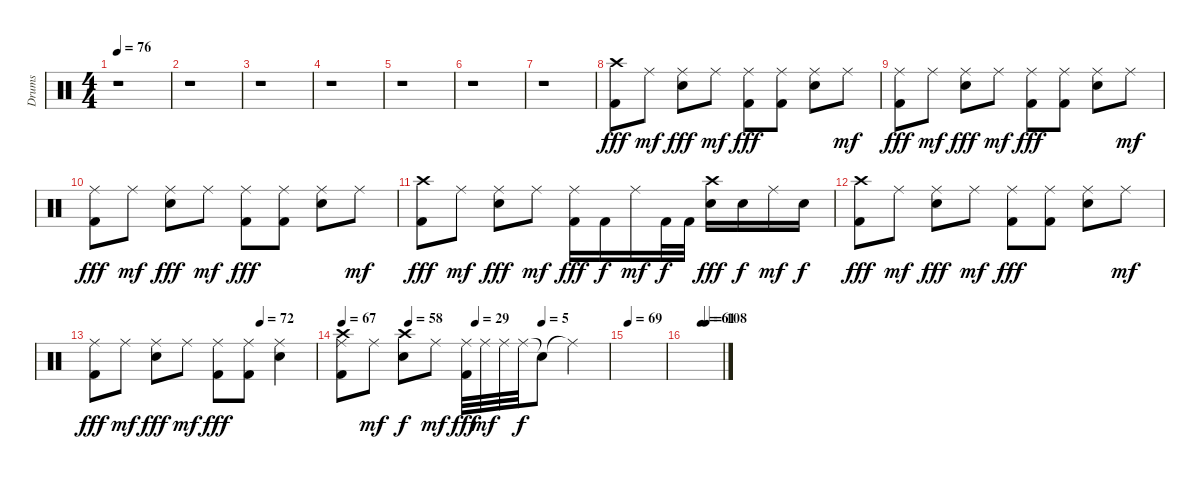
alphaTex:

\track ("Drums" "Drums") {instrument percussion}
\staff {score}
\articulation defaults
\ts (4 4)
\tempo 76
\clef neutral
\ks c
r.1{dy fff} |
r.1 |
r.1 |
r.1 |
r.1 |
r.1 |
r.1 |
("Crash high (hit)" "Kick (hit) 2").8 "Ride (middle)".8{dy mf} ("Ride (middle)" "Electric Snare (hit)").8{dy fff} "Ride (middle)".8{dy mf} ("Ride (middle)" "Kick (hit) 2").8{dy fff} ("Ride (middle)" "Kick (hit) 2").8 ("Ride (middle)" "Electric Snare (hit)").8 "Ride (middle)".8{dy mf} |
("Ride (middle)" "Kick (hit) 2").8{dy fff} "Ride (middle)".8{dy mf} ("Ride (middle)" "Electric Snare (hit)").8{dy fff} "Ride (middle)".8{dy mf} ("Ride (middle)" "Kick (hit) 2").8{dy fff} ("Ride (middle)" "Kick (hit) 2").8 ("Ride (middle)" "Electric Snare (hit)").8 "Ride (middle)".8{dy mf} |
("Ride (middle)" "Kick (hit) 2").8{dy fff} "Ride (middle)".8{dy mf} ("Ride (middle)" "Electric Snare (hit)").8{dy fff} "Ride (middle)".8{dy mf} ("Ride (middle)" "Kick (hit) 2").8{dy fff} ("Ride (middle)" "Kick (hit) 2").8 ("Ride (middle)" "Electric Snare (hit)").8 "Ride (middle)".8{dy mf} |
("Crash high (hit)" "Kick (hit) 2").8{dy fff} "Ride (middle)".8{dy mf} ("Ride (middle)" "Electric Snare (hit)").8{dy fff} "Ride (middle)".8{dy mf} ("Ride (middle)" "Kick (hit) 2").16{dy fff} "Kick (hit) 2".16{dy f} "Ride (middle)".16{dy mf} "Kick (hit) 2".32{dy f} "Kick (hit) 2".32 ("Crash high (hit)" "Electric Snare (hit)").16{dy fff} "Electric Snare (hit)".16{dy f} "Ride (middle)".16{dy mf} "Electric Snare (hit)".16{dy f} |
("Crash high (hit)" "Kick (hit) 2").8{dy fff} "Ride (middle)".8{dy mf} ("Ride (middle)" "Electric Snare (hit)").8{dy fff} "Ride (middle)".8{dy mf} ("Ride (middle)" "Kick (hit) 2").8{dy fff} ("Ride (middle)" "Kick (hit) 2").8 ("Ride (middle)" "Electric Snare (hit)").8 "Ride (middle)".8{dy mf} |
\tempo (72 0.75)
("Ride (middle)" "Kick (hit) 2").8{dy fff} "Ride (middle)".8{dy mf} ("Ride (middle)" "Electric Snare (hit)").8{dy fff} "Ride (middle)".8{dy mf} ("Ride (middle)" "Kick (hit) 2").8{dy fff} ("Ride (middle)" "Kick (hit) 2").8 ("Ride (middle)" "Electric Snare (hit)").4 |
\tempo 67
\tempo (58 0.25)
\tempo (29 0.5)
\tempo (5 0.75)
("Crash high (hit)" "Ride (middle)" "Kick (hit) 2").8 "Ride (middle)".8{dy mf} ("Crash high (hit)" "Electric Snare (hit)").8{dy f} "Ride (middle)".8{dy mf} ("Ride (middle)" "Kick (hit) 2").32{dy fff} "Ride (middle)".32{dy mf} "Ride (middle)".32 "Ride (middle)".32{dy f} "Snare (hit)"{t}.8 "Ride (middle)"{t}.4 |
\tempo 69
|
\tempo (61 0.4375)
\tempo (108 0.5625)
